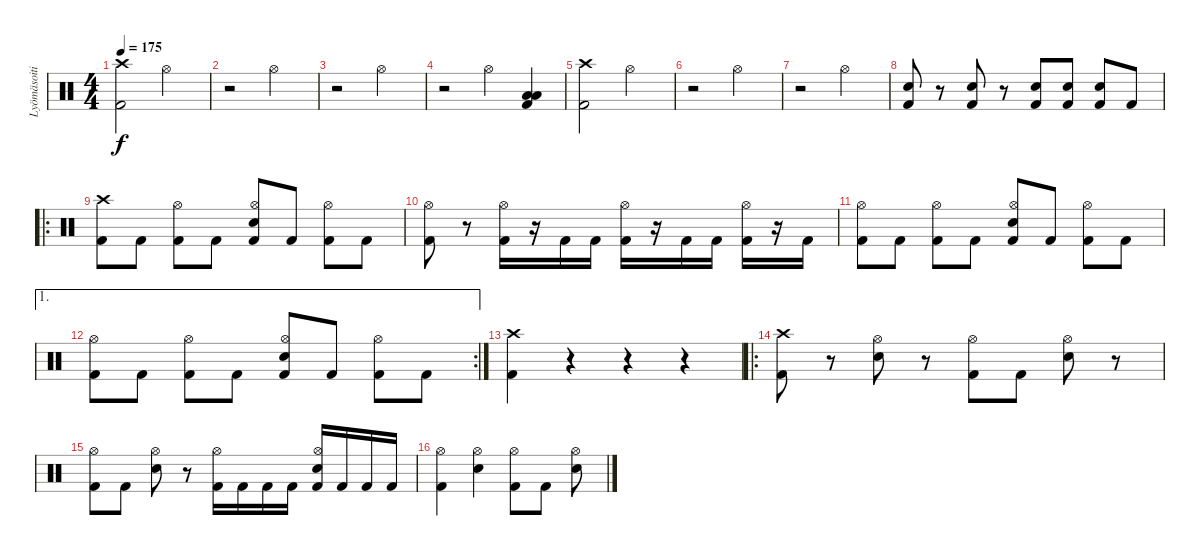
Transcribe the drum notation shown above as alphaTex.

\track ("Lyömäsoitin" "Lyömäsoiti") {instrument percussion}
\staff {score}
\articulation defaults
\ts (4 4)
\tempo 175
\clef neutral
\ks c
("Kick (hit) 2" "Crash high (hit)").2{dy f} "Hi-Hat (open)".2 |
r.2 "Hi-Hat (open)".2 |
r.2 "Hi-Hat (open)".2 |
r.2 "Hi-Hat (open)".4 ("Kick (hit) 2" "Low Tom (hit)" "Low Floor Tom (hit)").4 |
("Kick (hit) 2" "Crash high (hit)").2 "Hi-Hat (open)".2 |
r.2 "Hi-Hat (open)".2 |
r.2 "Hi-Hat (open)".2 |
("Kick (hit) 2" "Electric Snare (hit)").8 r.8 ("Kick (hit) 2" "Electric Snare (hit)").8 r.8 ("Kick (hit) 2" "Electric Snare (hit)").8 ("Kick (hit) 2" "Electric Snare (hit)").8 ("Kick (hit) 2" "Electric Snare (hit)").8 "Kick (hit) 2".8 |
\ro
("Kick (hit) 2" "Crash high (hit)").8 "Kick (hit) 2".8 ("Kick (hit) 2" "Hi-Hat (open)").8 "Kick (hit) 2".8 ("Kick (hit) 2" "Electric Snare (hit)" "Hi-Hat (open)").8 "Kick (hit) 2".8 ("Kick (hit) 2" "Hi-Hat (open)").8 "Kick (hit) 2".8 |
("Kick (hit) 2" "Hi-Hat (open)").8 r.8 ("Kick (hit) 2" "Hi-Hat (open)").16 r.16 "Kick (hit) 2".16 "Kick (hit) 2".16 ("Kick (hit) 2" "Hi-Hat (open)").16 r.16 "Kick (hit) 2".16 "Kick (hit) 2".16 ("Kick (hit) 2" "Hi-Hat (open)").16 r.16 "Kick (hit) 2".16 |
("Kick (hit) 2" "Hi-Hat (open)").8 "Kick (hit) 2".8 ("Kick (hit) 2" "Hi-Hat (open)").8 "Kick (hit) 2".8 ("Kick (hit) 2" "Electric Snare (hit)" "Hi-Hat (open)").8 "Kick (hit) 2".8 ("Kick (hit) 2" "Hi-Hat (open)").8 "Kick (hit) 2".8 |
\ae 1
\rc 2
("Kick (hit) 2" "Hi-Hat (open)").8 "Kick (hit) 2".8 ("Kick (hit) 2" "Hi-Hat (open)").8 "Kick (hit) 2".8 ("Kick (hit) 2" "Electric Snare (hit)" "Hi-Hat (open)").8 "Kick (hit) 2".8 ("Kick (hit) 2" "Hi-Hat (open)").8 "Kick (hit) 2".8 |
("Kick (hit) 2" "Crash high (hit)").4 r.4 r.4 r.4 |
\ro
("Kick (hit) 2" "Crash high (hit)").8 r.8 ("Electric Snare (hit)" "Hi-Hat (open)").8 r.8 ("Kick (hit) 2" "Hi-Hat (open)").8 "Kick (hit) 2".8 ("Electric Snare (hit)" "Hi-Hat (open)").8 r.8 |
("Kick (hit) 2" "Hi-Hat (open)").8 "Kick (hit) 2".8 ("Electric Snare (hit)" "Hi-Hat (open)").8 r.8 ("Kick (hit) 2" "Hi-Hat (open)").16 "Kick (hit) 2".16 "Kick (hit) 2".16 "Kick (hit) 2".16 ("Kick (hit) 2" "Electric Snare (hit)" "Hi-Hat (open)").16 "Kick (hit) 2".16 "Kick (hit) 2".16 "Kick (hit) 2".16 |
("Kick (hit) 2" "Hi-Hat (open)").4 ("Electric Snare (hit)" "Hi-Hat (open)").4 ("Kick (hit) 2" "Hi-Hat (open)").8 "Kick (hit) 2".8 ("Electric Snare (hit)" "Hi-Hat (open)").8
